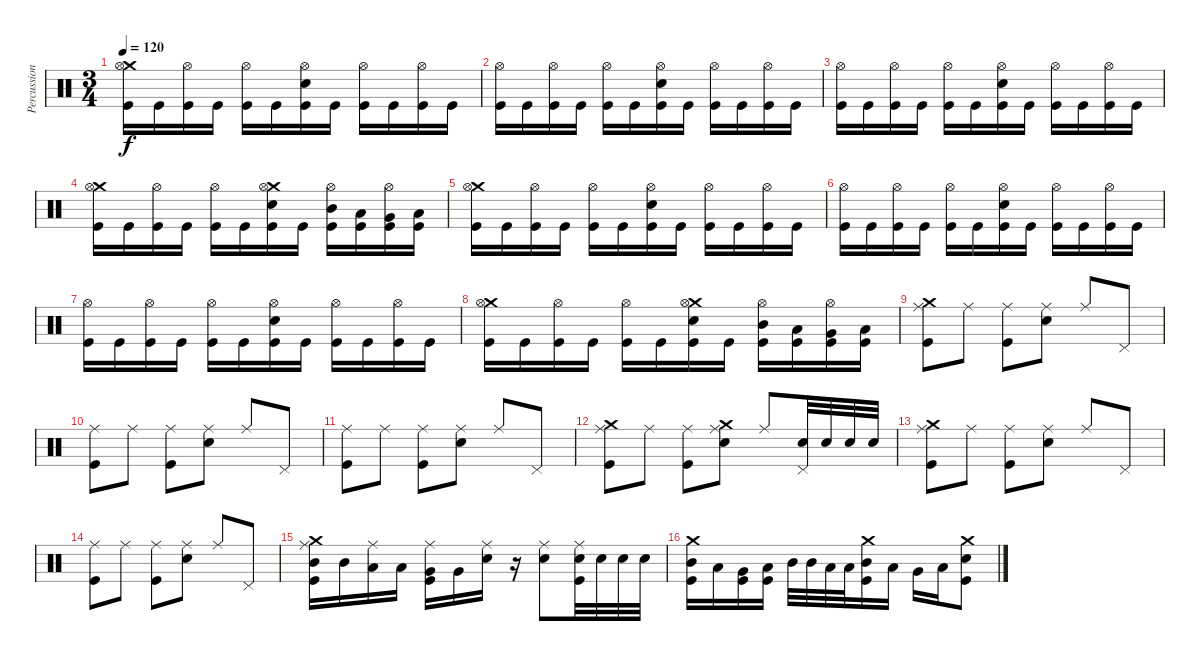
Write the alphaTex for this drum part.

\track ("Percussion" "Percussion") {instrument percussion}
\staff {score}
\articulation defaults
\ts (3 4)
\tempo 120
\clef neutral
\ks c
("Crash medium (hit)" "Hi-Hat (open)" "Kick (hit)").16{dy f} "Kick (hit)".16 ("Hi-Hat (open)" "Kick (hit)").16 "Kick (hit)".16 ("Hi-Hat (open)" "Kick (hit)").16 "Kick (hit)".16 ("Hi-Hat (open)" "Electric Snare (hit)" "Kick (hit)").16 "Kick (hit)".16 ("Hi-Hat (open)" "Kick (hit)").16 "Kick (hit)".16 ("Hi-Hat (open)" "Kick (hit)").16 "Kick (hit)".16 |
("Hi-Hat (open)" "Kick (hit)").16 "Kick (hit)".16 ("Hi-Hat (open)" "Kick (hit)").16 "Kick (hit)".16 ("Hi-Hat (open)" "Kick (hit)").16 "Kick (hit)".16 ("Hi-Hat (open)" "Electric Snare (hit)" "Kick (hit)").16 "Kick (hit)".16 ("Hi-Hat (open)" "Kick (hit)").16 "Kick (hit)".16 ("Hi-Hat (open)" "Kick (hit)").16 "Kick (hit)".16 |
("Hi-Hat (open)" "Kick (hit)").16 "Kick (hit)".16 ("Hi-Hat (open)" "Kick (hit)").16 "Kick (hit)".16 ("Hi-Hat (open)" "Kick (hit)").16 "Kick (hit)".16 ("Hi-Hat (open)" "Electric Snare (hit)" "Kick (hit)").16 "Kick (hit)".16 ("Hi-Hat (open)" "Kick (hit)").16 "Kick (hit)".16 ("Hi-Hat (open)" "Kick (hit)").16 "Kick (hit)".16 |
("Crash medium (hit)" "Hi-Hat (open)" "Kick (hit)").16 "Kick (hit)".16 ("Hi-Hat (open)" "Kick (hit)").16 "Kick (hit)".16 ("Hi-Hat (open)" "Kick (hit)").16 "Kick (hit)".16 ("Crash medium (hit)" "Hi-Hat (open)" "Electric Snare (hit)" "Kick (hit)").16 "Kick (hit)".16 ("Mid Tom (hit)" "Hi-Hat (open)" "Kick (hit)").16 ("Low Tom (hit)" "Kick (hit)").16 ("Very Low Tom (hit)" "Hi-Hat (open)" "Kick (hit)").16 ("Low Floor Tom (hit)" "Kick (hit)").16 |
("Crash medium (hit)" "Hi-Hat (open)" "Kick (hit)").16 "Kick (hit)".16 ("Hi-Hat (open)" "Kick (hit)").16 "Kick (hit)".16 ("Hi-Hat (open)" "Kick (hit)").16 "Kick (hit)".16 ("Hi-Hat (open)" "Electric Snare (hit)" "Kick (hit)").16 "Kick (hit)".16 ("Hi-Hat (open)" "Kick (hit)").16 "Kick (hit)".16 ("Hi-Hat (open)" "Kick (hit)").16 "Kick (hit)".16 |
("Hi-Hat (open)" "Kick (hit)").16 "Kick (hit)".16 ("Hi-Hat (open)" "Kick (hit)").16 "Kick (hit)".16 ("Hi-Hat (open)" "Kick (hit)").16 "Kick (hit)".16 ("Hi-Hat (open)" "Electric Snare (hit)" "Kick (hit)").16 "Kick (hit)".16 ("Hi-Hat (open)" "Kick (hit)").16 "Kick (hit)".16 ("Hi-Hat (open)" "Kick (hit)").16 "Kick (hit)".16 |
("Hi-Hat (open)" "Kick (hit)").16 "Kick (hit)".16 ("Hi-Hat (open)" "Kick (hit)").16 "Kick (hit)".16 ("Hi-Hat (open)" "Kick (hit)").16 "Kick (hit)".16 ("Hi-Hat (open)" "Electric Snare (hit)" "Kick (hit)").16 "Kick (hit)".16 ("Hi-Hat (open)" "Kick (hit)").16 "Kick (hit)".16 ("Hi-Hat (open)" "Kick (hit)").16 "Kick (hit)".16 |
("Crash medium (hit)" "Hi-Hat (open)" "Kick (hit)").16 "Kick (hit)".16 ("Hi-Hat (open)" "Kick (hit)").16 "Kick (hit)".16 ("Hi-Hat (open)" "Kick (hit)").16 "Kick (hit)".16 ("Crash medium (hit)" "Hi-Hat (open)" "Electric Snare (hit)" "Kick (hit)").16 "Kick (hit)".16 ("Mid Tom (hit)" "Hi-Hat (open)" "Kick (hit)").16 ("Low Tom (hit)" "Kick (hit)").16 ("Very Low Tom (hit)" "Hi-Hat (open)" "Kick (hit)").16 ("Low Floor Tom (hit)" "Kick (hit)").16 |
("Crash medium (hit)" "Ride (middle)" "Kick (hit)").8 "Ride (middle)".8 ("Ride (middle)" "Kick (hit)").8 ("Ride (middle)" "Electric Snare (hit)").8 "Ride (middle)".8 "Pedal Hi-Hat (hit)".8 |
("Ride (middle)" "Kick (hit)").8 "Ride (middle)".8 ("Ride (middle)" "Kick (hit)").8 ("Ride (middle)" "Electric Snare (hit)").8 "Ride (middle)".8 "Pedal Hi-Hat (hit)".8 |
("Ride (middle)" "Kick (hit)").8 "Ride (middle)".8 ("Ride (middle)" "Kick (hit)").8 ("Ride (middle)" "Electric Snare (hit)").8 "Ride (middle)".8 "Pedal Hi-Hat (hit)".8 |
("Crash medium (hit)" "Ride (middle)" "Kick (hit)").8 "Ride (middle)".8 ("Ride (middle)" "Kick (hit)").8 ("Crash medium (hit)" "Ride (middle)" "Electric Snare (hit)").8 "Ride (middle)".8 ("Pedal Hi-Hat (hit)" "Electric Snare (hit)").32 "Electric Snare (hit)".32 "Electric Snare (hit)".32 "Electric Snare (hit)".32 |
("Crash medium (hit)" "Ride (middle)" "Kick (hit)").8 "Ride (middle)".8 ("Ride (middle)" "Kick (hit)").8 ("Ride (middle)" "Electric Snare (hit)").8 "Ride (middle)".8 "Pedal Hi-Hat (hit)".8 |
("Ride (middle)" "Kick (hit)").8 "Ride (middle)".8 ("Ride (middle)" "Kick (hit)").8 ("Ride (middle)" "Electric Snare (hit)").8 "Ride (middle)".8 "Pedal Hi-Hat (hit)".8 |
("Crash medium (hit)" "Mid Tom (hit)" "Ride (middle)" "Kick (hit)").16 "Mid Tom (hit)".16 ("Low Tom (hit)" "Ride (middle)").16 "Low Tom (hit)".16 ("Very Low Tom (hit)" "Ride (middle)" "Kick (hit)").16 "Very Low Tom (hit)".16 ("Electric Snare (hit)" "Ride (middle)").16 r.16 ("Ride (middle)" "Electric Snare (hit)").8 ("Electric Snare (hit)" "Ride (middle)" "Kick (hit)").32 "Electric Snare (hit)".32 "Electric Snare (hit)".32 "Electric Snare (hit)".32 |
("Crash medium (hit)" "Mid Tom (hit)" "Kick (hit)").16 "Low Tom (hit)".16 ("Very Low Tom (hit)" "Kick (hit)").16 ("Low Floor Tom (hit)" "Kick (hit)").16 "Mid Tom (hit)".32 "Mid Tom (hit)".32 "Low Tom (hit)".32 "Low Tom (hit)".32 ("Crash medium (hit)" "Mid Tom (hit)" "Kick (hit)").16 "Low Tom (hit)".16 "Very Low Tom (hit)".16 "Low Floor Tom (hit)".16 ("Crash medium (hit)" "Electric Snare (hit)" "Kick (hit)").8
